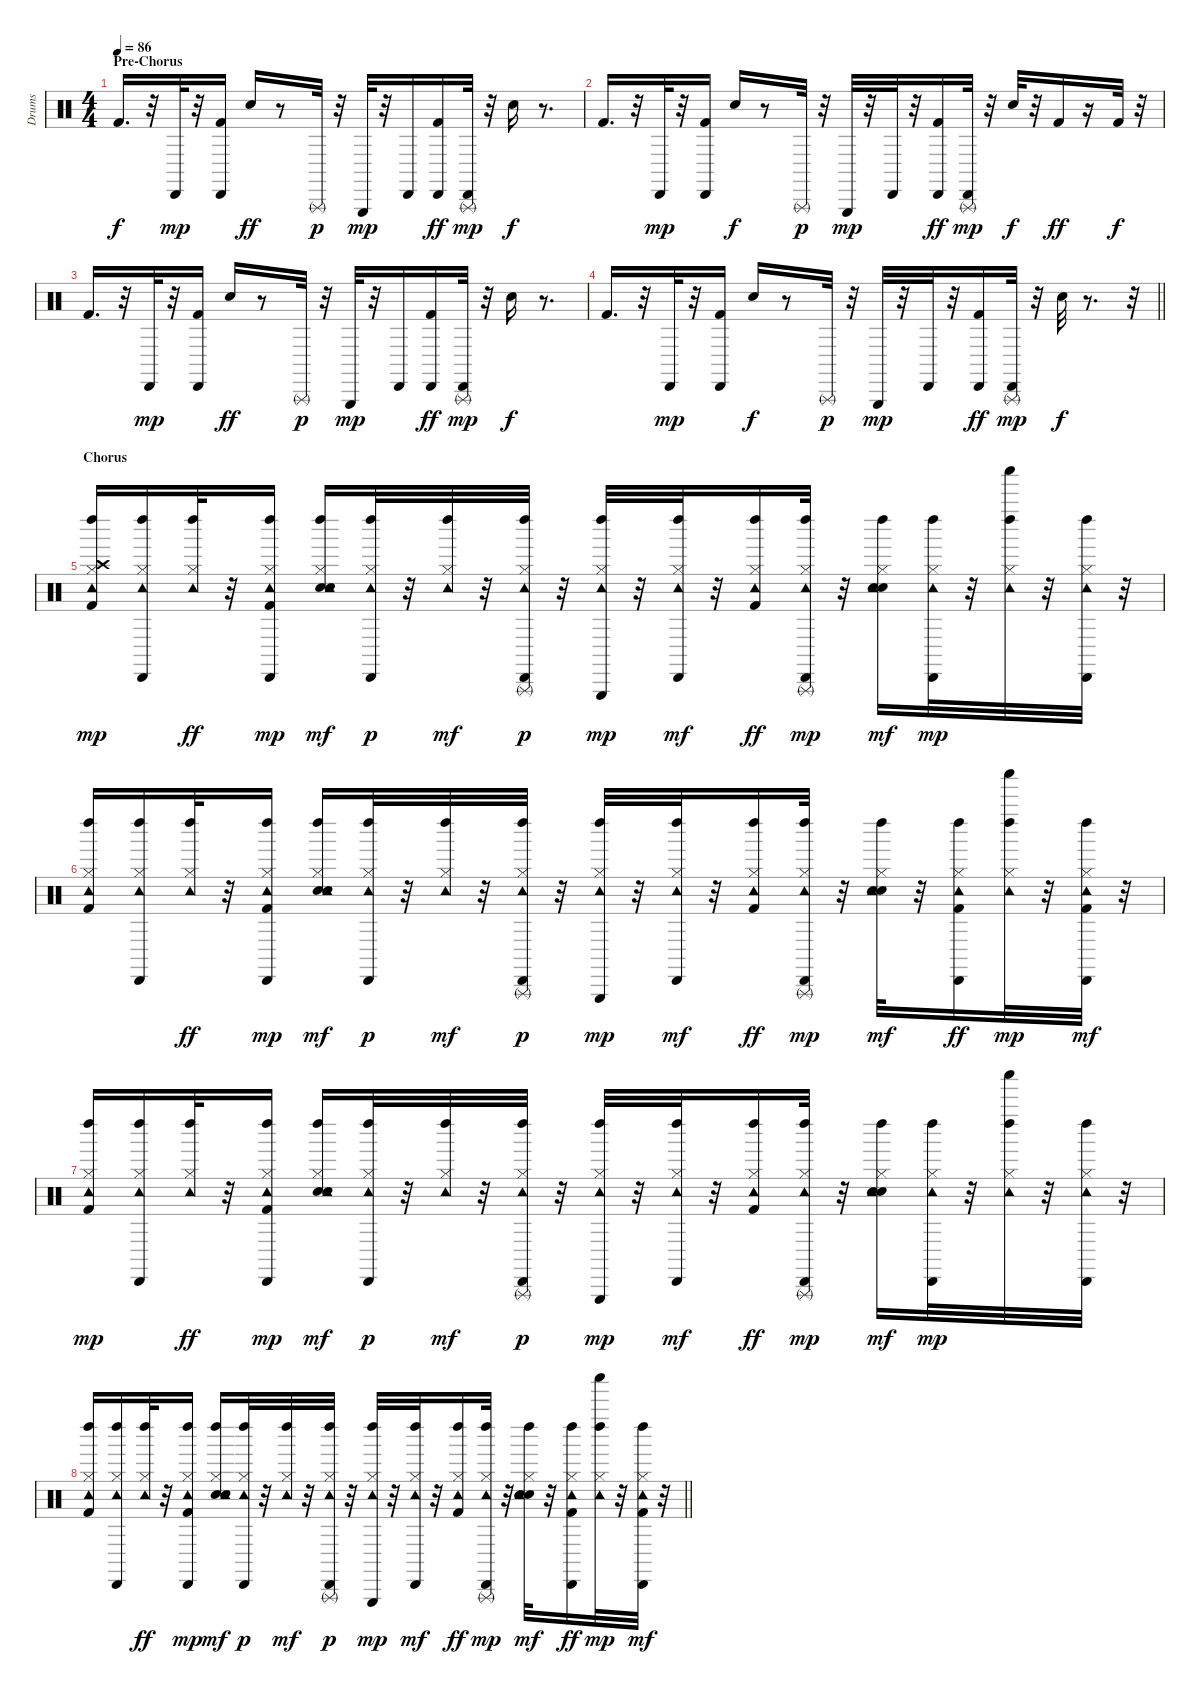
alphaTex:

\track ("Drums" "Drums") {instrument percussion}
\staff {score}
\articulation defaults
\ts (4 4)
\section ("" "Pre-Chorus")
\tempo 86
\clef neutral
\ks c "Kick (hit) 2".16{d dy f}
r.32 "Cabasa (hit)".32{dy mp} r.32 ("Cabasa (hit)" "Kick (hit) 2").16 "Hand Clap (hit)".16{dy ff} r.8 "Triangle (rnute)".32{dy p} r.32 "Triangle (hit)".32{dy mp} r.32 "Cabasa (hit)".16 ("Cabasa (hit)" "Kick (hit) 2").16{dy ff} ("Cabasa (hit)" "Triangle (rnute)").32{dy mp} r.32 "Hand Clap (hit)".16{dy f} r.8{d} |
"Kick (hit) 2".16{d} r.32 "Cabasa (hit)".32{dy mp} r.32 ("Cabasa (hit)" "Kick (hit) 2").16 "Hand Clap (hit)".16{dy f} r.8 "Triangle (rnute)".32{dy p} r.32 "Triangle (hit)".32{dy mp} r.32 "Cabasa (hit)".32 r.32 ("Cabasa (hit)" "Kick (hit) 2").16{dy ff} ("Cabasa (hit)" "Triangle (rnute)").32{dy mp} r.32 "Hand Clap (hit)".32{dy f} r.32 "Kick (hit) 2".16{dy ff} r.16 "Kick (hit) 2".32{dy f} r.32 |
"Kick (hit) 2".16{d} r.32 "Cabasa (hit)".32{dy mp} r.32 ("Cabasa (hit)" "Kick (hit) 2").16 "Hand Clap (hit)".16{dy ff} r.8 "Triangle (rnute)".32{dy p} r.32 "Triangle (hit)".32{dy mp} r.32 "Cabasa (hit)".16 ("Cabasa (hit)" "Kick (hit) 2").16{dy ff} ("Cabasa (hit)" "Triangle (rnute)").32{dy mp} r.32 "Hand Clap (hit)".16{dy f} r.8{d} |
\barLineRight lightlight "Kick (hit) 2".16{d}
r.32 "Cabasa (hit)".32{dy mp} r.32 ("Cabasa (hit)" "Kick (hit) 2").16 "Hand Clap (hit)".16{dy f} r.8 "Triangle (rnute)".32{dy p} r.32 "Triangle (hit)".32{dy mp} r.32 "Cabasa (hit)".32 r.32 ("Cabasa (hit)" "Kick (hit) 2").16{dy ff} ("Cabasa (hit)" "Triangle (rnute)").32{dy mp} r.32 "Hand Clap (hit)".32{dy f} r.8{d} r.32 |
\section ("" "Chorus")
("Hi-Hat (closed)" "Crash high (hit)" "Tambourine (hit)" "Left Maraca (hit)" "Kick (hit) 2").16{dy mp} ("Hi-Hat (closed)" "Tambourine (hit)" "Cabasa (hit)" "Left Maraca (hit)").16 ("Hi-Hat (closed)" "Tambourine (hit)" "Left Maraca (hit)").32{dy ff} r.32 ("Hi-Hat (closed)" "Tambourine (hit)" "Cabasa (hit)" "Left Maraca (hit)" "Kick (hit) 2").16{dy mp} ("Hi-Hat (closed)" "Hand Clap (hit)" "Tambourine (hit)" "Left Maraca (hit)" "Electric Snare (hit)").16{dy mf} ("Hi-Hat (closed)" "Tambourine (hit)" "Cabasa (hit)" "Left Maraca (hit)").32{dy p} r.32 ("Hi-Hat (closed)" "Tambourine (hit)" "Left Maraca (hit)").32{dy mf} r.32 ("Hi-Hat (closed)" "Tambourine (hit)" "Cabasa (hit)" "Left Maraca (hit)" "Triangle (rnute)").32{dy p} r.32 ("Hi-Hat (closed)" "Tambourine (hit)" "Left Maraca (hit)" "Triangle (hit)").32{dy mp} r.32 ("Hi-Hat (closed)" "Tambourine (hit)" "Cabasa (hit)" "Left Maraca (hit)").32{dy mf} r.32 ("Hi-Hat (closed)" "Tambourine (hit)" "Left Maraca (hit)" "Kick (hit) 2").16{dy ff} ("Hi-Hat (closed)" "Tambourine (hit)" "Cabasa (hit)" "Left Maraca (hit)" "Triangle (rnute)").32{dy mp} r.32 ("Hi-Hat (closed)" "Hand Clap (hit)" "Tambourine (hit)" "Left Maraca (hit)" "Electric Snare (hit)").16{dy mf} ("Hi-Hat (closed)" "Tambourine (hit)" "Cabasa (hit)" "Left Maraca (hit)").32{dy mp} r.32 ("Hi-Hat (closed)" "Tambourine (hit)" "Left Maraca (hit)" "Shaker (hit)").32 r.32 ("Hi-Hat (closed)" "Tambourine (hit)" "Cabasa (hit)" "Left Maraca (hit)").32 r.32 |
("Hi-Hat (closed)" "Tambourine (hit)" "Left Maraca (hit)" "Kick (hit) 2").16 ("Hi-Hat (closed)" "Tambourine (hit)" "Cabasa (hit)" "Left Maraca (hit)").16 ("Hi-Hat (closed)" "Tambourine (hit)" "Left Maraca (hit)").32{dy ff} r.32 ("Hi-Hat (closed)" "Tambourine (hit)" "Cabasa (hit)" "Left Maraca (hit)" "Kick (hit) 2").16{dy mp} ("Hi-Hat (closed)" "Hand Clap (hit)" "Tambourine (hit)" "Left Maraca (hit)" "Electric Snare (hit)").16{dy mf} ("Hi-Hat (closed)" "Tambourine (hit)" "Cabasa (hit)" "Left Maraca (hit)").32{dy p} r.32 ("Hi-Hat (closed)" "Tambourine (hit)" "Left Maraca (hit)").32{dy mf} r.32 ("Hi-Hat (closed)" "Tambourine (hit)" "Cabasa (hit)" "Left Maraca (hit)" "Triangle (rnute)").32{dy p} r.32 ("Hi-Hat (closed)" "Tambourine (hit)" "Left Maraca (hit)" "Triangle (hit)").32{dy mp} r.32 ("Hi-Hat (closed)" "Tambourine (hit)" "Cabasa (hit)" "Left Maraca (hit)").32{dy mf} r.32 ("Hi-Hat (closed)" "Tambourine (hit)" "Left Maraca (hit)" "Kick (hit) 2").16{dy ff} ("Hi-Hat (closed)" "Tambourine (hit)" "Cabasa (hit)" "Left Maraca (hit)" "Triangle (rnute)").32{dy mp} r.32 ("Hi-Hat (closed)" "Hand Clap (hit)" "Tambourine (hit)" "Left Maraca (hit)" "Electric Snare (hit)").32{dy mf} r.32 ("Hi-Hat (closed)" "Tambourine (hit)" "Cabasa (hit)" "Left Maraca (hit)" "Kick (hit) 2").16{dy ff} ("Hi-Hat (closed)" "Tambourine (hit)" "Left Maraca (hit)" "Shaker (hit)").32{dy mp} r.32 ("Hi-Hat (closed)" "Tambourine (hit)" "Cabasa (hit)" "Left Maraca (hit)" "Kick (hit) 2").32{dy mf} r.32 |
("Hi-Hat (closed)" "Tambourine (hit)" "Left Maraca (hit)" "Kick (hit) 2").16{dy mp} ("Hi-Hat (closed)" "Tambourine (hit)" "Cabasa (hit)" "Left Maraca (hit)").16 ("Hi-Hat (closed)" "Tambourine (hit)" "Left Maraca (hit)").32{dy ff} r.32 ("Hi-Hat (closed)" "Tambourine (hit)" "Cabasa (hit)" "Left Maraca (hit)" "Kick (hit) 2").16{dy mp} ("Hi-Hat (closed)" "Hand Clap (hit)" "Tambourine (hit)" "Left Maraca (hit)" "Electric Snare (hit)").16{dy mf} ("Hi-Hat (closed)" "Tambourine (hit)" "Cabasa (hit)" "Left Maraca (hit)").32{dy p} r.32 ("Hi-Hat (closed)" "Tambourine (hit)" "Left Maraca (hit)").32{dy mf} r.32 ("Hi-Hat (closed)" "Tambourine (hit)" "Cabasa (hit)" "Left Maraca (hit)" "Triangle (rnute)").32{dy p} r.32 ("Hi-Hat (closed)" "Tambourine (hit)" "Left Maraca (hit)" "Triangle (hit)").32{dy mp} r.32 ("Hi-Hat (closed)" "Tambourine (hit)" "Cabasa (hit)" "Left Maraca (hit)").32{dy mf} r.32 ("Hi-Hat (closed)" "Tambourine (hit)" "Left Maraca (hit)" "Kick (hit) 2").16{dy ff} ("Hi-Hat (closed)" "Tambourine (hit)" "Cabasa (hit)" "Left Maraca (hit)" "Triangle (rnute)").32{dy mp} r.32 ("Hi-Hat (closed)" "Hand Clap (hit)" "Tambourine (hit)" "Left Maraca (hit)" "Electric Snare (hit)").16{dy mf} ("Hi-Hat (closed)" "Tambourine (hit)" "Cabasa (hit)" "Left Maraca (hit)").32{dy mp} r.32 ("Hi-Hat (closed)" "Tambourine (hit)" "Left Maraca (hit)" "Shaker (hit)").32 r.32 ("Hi-Hat (closed)" "Tambourine (hit)" "Cabasa (hit)" "Left Maraca (hit)").32 r.32 |
\barLineRight lightlight
("Hi-Hat (closed)" "Tambourine (hit)" "Left Maraca (hit)" "Kick (hit) 2").16 ("Hi-Hat (closed)" "Tambourine (hit)" "Cabasa (hit)" "Left Maraca (hit)").16 ("Hi-Hat (closed)" "Tambourine (hit)" "Left Maraca (hit)").32{dy ff} r.32 ("Hi-Hat (closed)" "Tambourine (hit)" "Cabasa (hit)" "Left Maraca (hit)" "Kick (hit) 2").16{dy mp} ("Hi-Hat (closed)" "Hand Clap (hit)" "Tambourine (hit)" "Left Maraca (hit)" "Electric Snare (hit)").16{dy mf} ("Hi-Hat (closed)" "Tambourine (hit)" "Cabasa (hit)" "Left Maraca (hit)").32{dy p} r.32 ("Hi-Hat (closed)" "Tambourine (hit)" "Left Maraca (hit)").32{dy mf} r.32 ("Hi-Hat (closed)" "Tambourine (hit)" "Cabasa (hit)" "Left Maraca (hit)" "Triangle (rnute)").32{dy p} r.32 ("Hi-Hat (closed)" "Tambourine (hit)" "Left Maraca (hit)" "Triangle (hit)").32{dy mp} r.32 ("Hi-Hat (closed)" "Tambourine (hit)" "Cabasa (hit)" "Left Maraca (hit)").32{dy mf} r.32 ("Hi-Hat (closed)" "Tambourine (hit)" "Left Maraca (hit)" "Kick (hit) 2").16{dy ff} ("Hi-Hat (closed)" "Tambourine (hit)" "Cabasa (hit)" "Left Maraca (hit)" "Triangle (rnute)").32{dy mp} r.32 ("Hi-Hat (closed)" "Hand Clap (hit)" "Tambourine (hit)" "Left Maraca (hit)" "Electric Snare (hit)").32{dy mf} r.32 ("Hi-Hat (closed)" "Tambourine (hit)" "Cabasa (hit)" "Left Maraca (hit)" "Kick (hit) 2").16{dy ff} ("Hi-Hat (closed)" "Tambourine (hit)" "Left Maraca (hit)" "Shaker (hit)").32{dy mp} r.32 ("Hi-Hat (closed)" "Tambourine (hit)" "Cabasa (hit)" "Left Maraca (hit)" "Kick (hit) 2").32{dy mf} r.32
